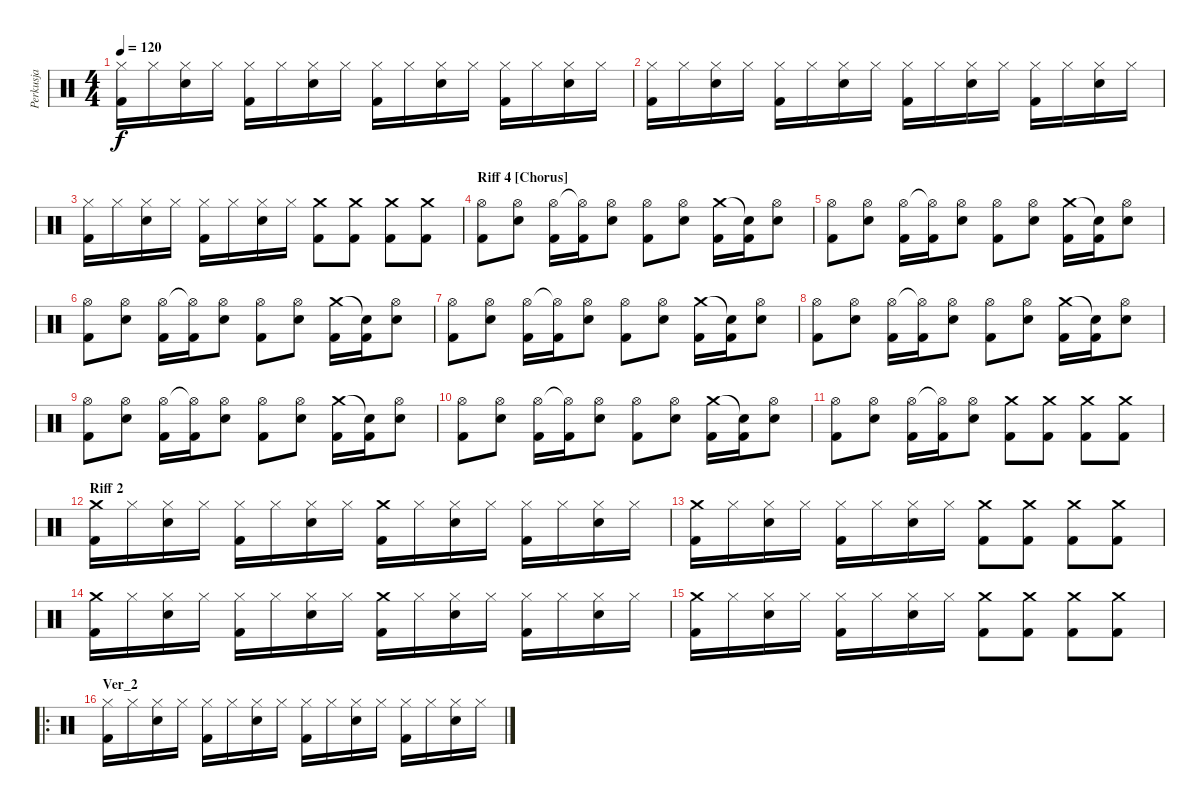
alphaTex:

\track ("Perkusja" "Perkusja") {instrument percussion}
\staff {score}
\articulation defaults
\ts (4 4)
\tempo 120
\clef neutral
\ks c
("Hi-Hat (closed)" "Kick (hit) 2").16{dy f} "Hi-Hat (closed)".16 ("Hi-Hat (closed)" "Snare (hit) 2").16 "Hi-Hat (closed)".16 ("Hi-Hat (closed)" "Kick (hit) 2").16 "Hi-Hat (closed)".16 ("Hi-Hat (closed)" "Snare (hit) 2").16 "Hi-Hat (closed)".16 ("Hi-Hat (closed)" "Kick (hit) 2").16 "Hi-Hat (closed)".16 ("Hi-Hat (closed)" "Snare (hit) 2").16 "Hi-Hat (closed)".16 ("Hi-Hat (closed)" "Kick (hit) 2").16 "Hi-Hat (closed)".16 ("Hi-Hat (closed)" "Snare (hit) 2").16 "Hi-Hat (closed)".16 |
("Hi-Hat (closed)" "Kick (hit) 2").16 "Hi-Hat (closed)".16 ("Hi-Hat (closed)" "Snare (hit) 2").16 "Hi-Hat (closed)".16 ("Hi-Hat (closed)" "Kick (hit) 2").16 "Hi-Hat (closed)".16 ("Hi-Hat (closed)" "Snare (hit) 2").16 "Hi-Hat (closed)".16 ("Hi-Hat (closed)" "Kick (hit) 2").16 "Hi-Hat (closed)".16 ("Hi-Hat (closed)" "Snare (hit) 2").16 "Hi-Hat (closed)".16 ("Hi-Hat (closed)" "Kick (hit) 2").16 "Hi-Hat (closed)".16 ("Hi-Hat (closed)" "Snare (hit) 2").16 "Hi-Hat (closed)".16 |
("Hi-Hat (closed)" "Kick (hit) 2").16 "Hi-Hat (closed)".16 ("Hi-Hat (closed)" "Snare (hit) 2").16 "Hi-Hat (closed)".16 ("Hi-Hat (closed)" "Kick (hit) 2").16 "Hi-Hat (closed)".16 ("Hi-Hat (closed)" "Snare (hit) 2").16 "Hi-Hat (closed)".16 ("Crash medium (hit)" "Kick (hit) 2").8 ("Crash medium (hit)" "Kick (hit) 2").8 ("Crash medium (hit)" "Kick (hit) 2").8 ("Crash medium (hit)" "Kick (hit) 2").8 |
\section ("" "Riff 4 [Chorus]")
("Kick (hit) 2" "Hi-Hat (open)").8 ("Snare (hit) 2" "Hi-Hat (open)").8 ("Kick (hit) 2" "Hi-Hat (open)").16 ("Kick (hit) 2" "Hi-Hat (open)"{t}).16 ("Snare (hit) 2" "Hi-Hat (open)").8 ("Kick (hit) 2" "Hi-Hat (open)").8 ("Snare (hit) 2" "Hi-Hat (open)").8 ("Kick (hit) 2" "Crash medium (hit)").16 ("Kick (hit) 2" "Snare (hit)"{t}).16 ("Snare (hit) 2" "Hi-Hat (open)").8 |
("Kick (hit) 2" "Hi-Hat (open)").8 ("Snare (hit) 2" "Hi-Hat (open)").8 ("Kick (hit) 2" "Hi-Hat (open)").16 ("Kick (hit) 2" "Hi-Hat (open)"{t}).16 ("Snare (hit) 2" "Hi-Hat (open)").8 ("Kick (hit) 2" "Hi-Hat (open)").8 ("Snare (hit) 2" "Hi-Hat (open)").8 ("Kick (hit) 2" "Crash medium (hit)").16 ("Kick (hit) 2" "Snare (hit)"{t}).16 ("Snare (hit) 2" "Hi-Hat (open)").8 |
("Kick (hit) 2" "Hi-Hat (open)").8 ("Snare (hit) 2" "Hi-Hat (open)").8 ("Kick (hit) 2" "Hi-Hat (open)").16 ("Kick (hit) 2" "Hi-Hat (open)"{t}).16 ("Snare (hit) 2" "Hi-Hat (open)").8 ("Kick (hit) 2" "Hi-Hat (open)").8 ("Snare (hit) 2" "Hi-Hat (open)").8 ("Kick (hit) 2" "Crash medium (hit)").16 ("Kick (hit) 2" "Snare (hit)"{t}).16 ("Snare (hit) 2" "Hi-Hat (open)").8 |
("Kick (hit) 2" "Hi-Hat (open)").8 ("Snare (hit) 2" "Hi-Hat (open)").8 ("Kick (hit) 2" "Hi-Hat (open)").16 ("Kick (hit) 2" "Hi-Hat (open)"{t}).16 ("Snare (hit) 2" "Hi-Hat (open)").8 ("Kick (hit) 2" "Hi-Hat (open)").8 ("Snare (hit) 2" "Hi-Hat (open)").8 ("Kick (hit) 2" "Crash medium (hit)").16 ("Kick (hit) 2" "Snare (hit)"{t}).16 ("Snare (hit) 2" "Hi-Hat (open)").8 |
("Kick (hit) 2" "Hi-Hat (open)").8 ("Snare (hit) 2" "Hi-Hat (open)").8 ("Kick (hit) 2" "Hi-Hat (open)").16 ("Kick (hit) 2" "Hi-Hat (open)"{t}).16 ("Snare (hit) 2" "Hi-Hat (open)").8 ("Kick (hit) 2" "Hi-Hat (open)").8 ("Snare (hit) 2" "Hi-Hat (open)").8 ("Kick (hit) 2" "Crash medium (hit)").16 ("Kick (hit) 2" "Snare (hit)"{t}).16 ("Snare (hit) 2" "Hi-Hat (open)").8 |
("Kick (hit) 2" "Hi-Hat (open)").8 ("Snare (hit) 2" "Hi-Hat (open)").8 ("Kick (hit) 2" "Hi-Hat (open)").16 ("Kick (hit) 2" "Hi-Hat (open)"{t}).16 ("Snare (hit) 2" "Hi-Hat (open)").8 ("Kick (hit) 2" "Hi-Hat (open)").8 ("Snare (hit) 2" "Hi-Hat (open)").8 ("Kick (hit) 2" "Crash medium (hit)").16 ("Kick (hit) 2" "Snare (hit)"{t}).16 ("Snare (hit) 2" "Hi-Hat (open)").8 |
("Kick (hit) 2" "Hi-Hat (open)").8 ("Snare (hit) 2" "Hi-Hat (open)").8 ("Kick (hit) 2" "Hi-Hat (open)").16 ("Kick (hit) 2" "Hi-Hat (open)"{t}).16 ("Snare (hit) 2" "Hi-Hat (open)").8 ("Kick (hit) 2" "Hi-Hat (open)").8 ("Snare (hit) 2" "Hi-Hat (open)").8 ("Kick (hit) 2" "Crash medium (hit)").16 ("Kick (hit) 2" "Snare (hit)"{t}).16 ("Snare (hit) 2" "Hi-Hat (open)").8 |
("Kick (hit) 2" "Hi-Hat (open)").8 ("Snare (hit) 2" "Hi-Hat (open)").8 ("Kick (hit) 2" "Hi-Hat (open)").16 ("Kick (hit) 2" "Hi-Hat (open)"{t}).16 ("Snare (hit) 2" "Hi-Hat (open)").8 ("Kick (hit) 2" "Crash medium (hit)").8 ("Kick (hit) 2" "Crash medium (hit)").8 ("Kick (hit) 2" "Crash medium (hit)").8 ("Kick (hit) 2" "Crash medium (hit)").8 |
\section ("" "Riff 2")
("Crash medium (hit)" "Kick (hit) 2").16 "Hi-Hat (closed)".16 ("Hi-Hat (closed)" "Snare (hit) 2").16 "Hi-Hat (closed)".16 ("Hi-Hat (closed)" "Kick (hit) 2").16 "Hi-Hat (closed)".16 ("Hi-Hat (closed)" "Snare (hit) 2").16 "Hi-Hat (closed)".16 ("Crash medium (hit)" "Kick (hit) 2").16 "Hi-Hat (closed)".16 ("Hi-Hat (closed)" "Snare (hit) 2").16 "Hi-Hat (closed)".16 ("Hi-Hat (closed)" "Kick (hit) 2").16 "Hi-Hat (closed)".16 ("Hi-Hat (closed)" "Snare (hit) 2").16 "Hi-Hat (closed)".16 |
("Crash medium (hit)" "Kick (hit) 2").16 "Hi-Hat (closed)".16 ("Hi-Hat (closed)" "Snare (hit) 2").16 "Hi-Hat (closed)".16 ("Hi-Hat (closed)" "Kick (hit) 2").16 "Hi-Hat (closed)".16 ("Hi-Hat (closed)" "Snare (hit) 2").16 "Hi-Hat (closed)".16 ("Crash medium (hit)" "Kick (hit) 2").8 ("Crash medium (hit)" "Kick (hit) 2").8 ("Crash medium (hit)" "Kick (hit) 2").8 ("Crash medium (hit)" "Kick (hit) 2").8 |
("Crash medium (hit)" "Kick (hit) 2").16 "Hi-Hat (closed)".16 ("Hi-Hat (closed)" "Snare (hit) 2").16 "Hi-Hat (closed)".16 ("Hi-Hat (closed)" "Kick (hit) 2").16 "Hi-Hat (closed)".16 ("Hi-Hat (closed)" "Snare (hit) 2").16 "Hi-Hat (closed)".16 ("Crash medium (hit)" "Kick (hit) 2").16 "Hi-Hat (closed)".16 ("Hi-Hat (closed)" "Snare (hit) 2").16 "Hi-Hat (closed)".16 ("Hi-Hat (closed)" "Kick (hit) 2").16 "Hi-Hat (closed)".16 ("Hi-Hat (closed)" "Snare (hit) 2").16 "Hi-Hat (closed)".16 |
("Crash medium (hit)" "Kick (hit) 2").16 "Hi-Hat (closed)".16 ("Hi-Hat (closed)" "Snare (hit) 2").16 "Hi-Hat (closed)".16 ("Hi-Hat (closed)" "Kick (hit) 2").16 "Hi-Hat (closed)".16 ("Hi-Hat (closed)" "Snare (hit) 2").16 "Hi-Hat (closed)".16 ("Crash medium (hit)" "Kick (hit) 2").8 ("Crash medium (hit)" "Kick (hit) 2").8 ("Crash medium (hit)" "Kick (hit) 2").8 ("Crash medium (hit)" "Kick (hit) 2").8 |
\ro
\section ("" "Ver_2")
("Hi-Hat (closed)" "Kick (hit) 2").16 "Hi-Hat (closed)".16 ("Hi-Hat (closed)" "Snare (hit) 2").16 "Hi-Hat (closed)".16 ("Hi-Hat (closed)" "Kick (hit) 2").16 "Hi-Hat (closed)".16 ("Hi-Hat (closed)" "Snare (hit) 2").16 "Hi-Hat (closed)".16 ("Hi-Hat (closed)" "Kick (hit) 2").16 "Hi-Hat (closed)".16 ("Hi-Hat (closed)" "Snare (hit) 2").16 "Hi-Hat (closed)".16 ("Hi-Hat (closed)" "Kick (hit) 2").16 "Hi-Hat (closed)".16 ("Hi-Hat (closed)" "Snare (hit) 2").16 "Hi-Hat (closed)".16
